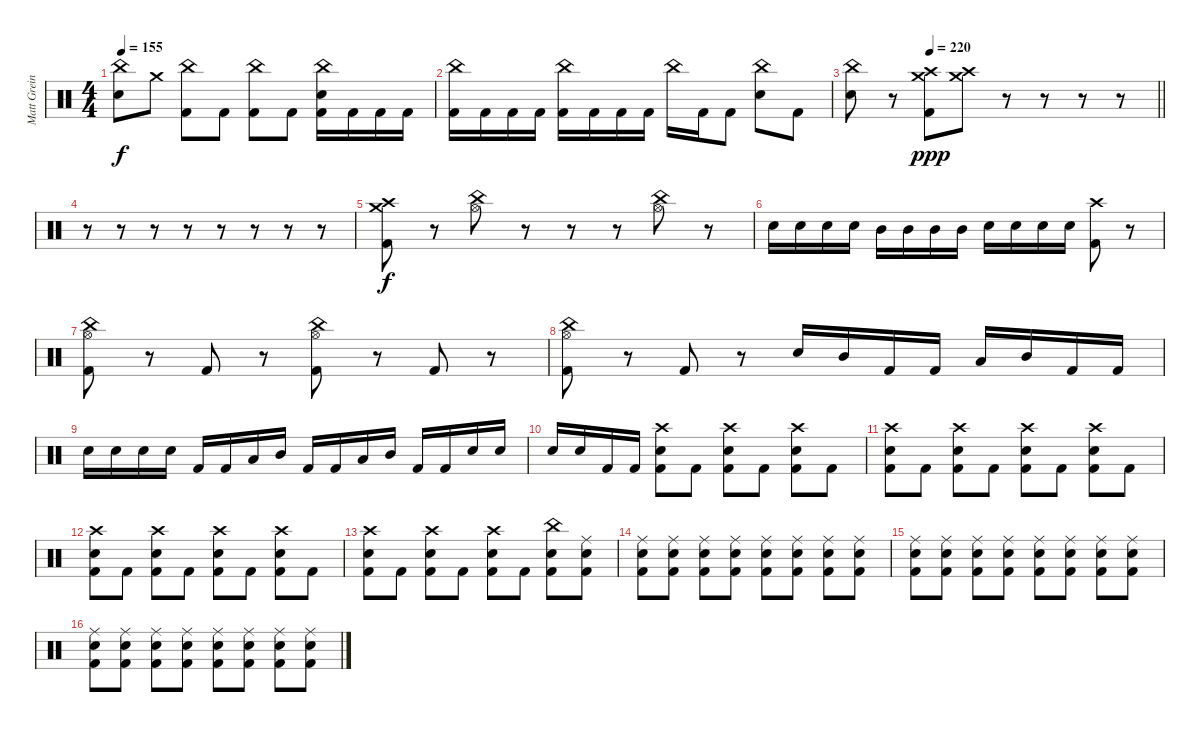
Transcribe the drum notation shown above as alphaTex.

\track ("Matt Greiner (Drums)" "Matt Grein") {instrument percussion}
\staff {score}
\articulation defaults
\ts (4 4)
\tempo 155
\clef neutral
\ks c
("China (hit)" "Electric Snare (hit)").8{dy f} "Crash medium (hit)".8 ("China (hit)" "Kick (hit) 2").8 "Kick (hit) 2".8 ("China (hit)" "Kick (hit) 2").8 "Kick (hit) 2".8 ("China (hit)" "Electric Snare (hit)" "Kick (hit) 2").16 "Kick (hit) 2".16 "Kick (hit) 2".16 "Kick (hit) 2".16 |
("China (hit)" "Kick (hit) 2").16 "Kick (hit) 2".16 "Kick (hit) 2".16 "Kick (hit) 2".16 ("China (hit)" "Kick (hit) 2").16 "Kick (hit) 2".16 "Kick (hit) 2".16 "Kick (hit) 2".16 "China (hit)".16 "Kick (hit) 2".16 "Kick (hit) 2".8 ("China (hit)" "Electric Snare (hit)").8 "Kick (hit) 2".8 |
\tempo (220 0.25)
\barLineRight lightlight
("China (hit)" "Electric Snare (hit)").8 r.8 ("Crash medium (hit)" "Crash high (hit)" "Kick (hit) 2").8{dy ppp} ("Crash medium (hit)" "Crash high (hit)").8 r.8 r.8 r.8 r.8 |
r.8 r.8 r.8 r.8 r.8 r.8 r.8 r.8 |
("Crash medium (hit)" "Crash high (hit)" "Kick (hit) 2").8{dy f} r.8 ("China (hit)" "Hi-Hat (open)").8 r.8 r.8 r.8 ("China (hit)" "Hi-Hat (open)").8 r.8 |
"Electric Snare (hit)".16 "Electric Snare (hit)".16 "Electric Snare (hit)".16 "Electric Snare (hit)".16 "Mid Tom (hit)".16 "Mid Tom (hit)".16 "Mid Tom (hit)".16 "Mid Tom (hit)".16 "Electric Snare (hit)".16 "Electric Snare (hit)".16 "Electric Snare (hit)".16 "Electric Snare (hit)".16 ("Crash high (hit)" "Kick (hit) 2").8 r.8 |
("China (hit)" "Hi-Hat (open)" "Kick (hit) 2").8 r.8 "Kick (hit) 2".8 r.8 ("China (hit)" "Hi-Hat (open)" "Kick (hit) 2").8 r.8 "Kick (hit) 2".8 r.8 |
("China (hit)" "Hi-Hat (open)" "Kick (hit) 2").8 r.8 "Kick (hit) 2".8 r.8 "Electric Snare (hit)".16 "Mid Tom (hit)".16 "Kick (hit) 2".16 "Kick (hit) 2".16 "Low Floor Tom (hit)".16 "Mid Tom (hit)".16 "Kick (hit) 2".16 "Kick (hit) 2".16 |
"Electric Snare (hit)".16 "Electric Snare (hit)".16 "Electric Snare (hit)".16 "Electric Snare (hit)".16 "Kick (hit) 2".16 "Kick (hit) 2".16 "Low Floor Tom (hit)".16 "Mid Tom (hit)".16 "Kick (hit) 2".16 "Kick (hit) 2".16 "Low Floor Tom (hit)".16 "Mid Tom (hit)".16 "Kick (hit) 2".16 "Kick (hit) 2".16 "Electric Snare (hit)".16 "Electric Snare (hit)".16 |
"Electric Snare (hit)".16 "Electric Snare (hit)".16 "Kick (hit) 2".16 "Kick (hit) 2".16 ("Crash high (hit)" "Electric Snare (hit)" "Kick (hit) 2").8 "Kick (hit) 2".8 ("Crash high (hit)" "Electric Snare (hit)" "Kick (hit) 2").8 "Kick (hit) 2".8 ("Crash high (hit)" "Electric Snare (hit)" "Kick (hit) 2").8 "Kick (hit) 2".8 |
("Crash high (hit)" "Electric Snare (hit)" "Kick (hit) 2").8 "Kick (hit) 2".8 ("Crash high (hit)" "Electric Snare (hit)" "Kick (hit) 2").8 "Kick (hit) 2".8 ("Crash high (hit)" "Electric Snare (hit)" "Kick (hit) 2").8 "Kick (hit) 2".8 ("Crash high (hit)" "Electric Snare (hit)" "Kick (hit) 2").8 "Kick (hit) 2".8 |
("Crash high (hit)" "Electric Snare (hit)" "Kick (hit) 2").8 "Kick (hit) 2".8 ("Crash high (hit)" "Electric Snare (hit)" "Kick (hit) 2").8 "Kick (hit) 2".8 ("Crash high (hit)" "Electric Snare (hit)" "Kick (hit) 2").8 "Kick (hit) 2".8 ("Crash high (hit)" "Electric Snare (hit)" "Kick (hit) 2").8 "Kick (hit) 2".8 |
("Crash high (hit)" "Electric Snare (hit)" "Kick (hit) 2").8 "Kick (hit) 2".8 ("Crash high (hit)" "Electric Snare (hit)" "Kick (hit) 2").8 "Kick (hit) 2".8 ("Crash high (hit)" "Electric Snare (hit)" "Kick (hit) 2").8 "Kick (hit) 2".8 ("China (hit)" "Electric Snare (hit)" "Kick (hit) 2").8 ("Ride (middle)" "Electric Snare (hit)" "Kick (hit) 2").8 |
("Ride (middle)" "Electric Snare (hit)" "Kick (hit) 2").8 ("Ride (middle)" "Electric Snare (hit)" "Kick (hit) 2").8 ("Ride (middle)" "Electric Snare (hit)" "Kick (hit) 2").8 ("Ride (middle)" "Electric Snare (hit)" "Kick (hit) 2").8 ("Ride (middle)" "Electric Snare (hit)" "Kick (hit) 2").8 ("Ride (middle)" "Electric Snare (hit)" "Kick (hit) 2").8 ("Ride (middle)" "Electric Snare (hit)" "Kick (hit) 2").8 ("Ride (middle)" "Electric Snare (hit)" "Kick (hit) 2").8 |
("Ride (middle)" "Electric Snare (hit)" "Kick (hit) 2").8 ("Ride (middle)" "Electric Snare (hit)" "Kick (hit) 2").8 ("Ride (middle)" "Electric Snare (hit)" "Kick (hit) 2").8 ("Ride (middle)" "Electric Snare (hit)" "Kick (hit) 2").8 ("Ride (middle)" "Electric Snare (hit)" "Kick (hit) 2").8 ("Ride (middle)" "Electric Snare (hit)" "Kick (hit) 2").8 ("Ride (middle)" "Electric Snare (hit)" "Kick (hit) 2").8 ("Ride (middle)" "Electric Snare (hit)" "Kick (hit) 2").8 |
("Ride (middle)" "Electric Snare (hit)" "Kick (hit) 2").8 ("Ride (middle)" "Electric Snare (hit)" "Kick (hit) 2").8 ("Ride (middle)" "Electric Snare (hit)" "Kick (hit) 2").8 ("Ride (middle)" "Electric Snare (hit)" "Kick (hit) 2").8 ("Ride (middle)" "Electric Snare (hit)" "Kick (hit) 2").8 ("Ride (middle)" "Electric Snare (hit)" "Kick (hit) 2").8 ("Ride (middle)" "Electric Snare (hit)" "Kick (hit) 2").8 ("Ride (middle)" "Electric Snare (hit)" "Kick (hit) 2").8
